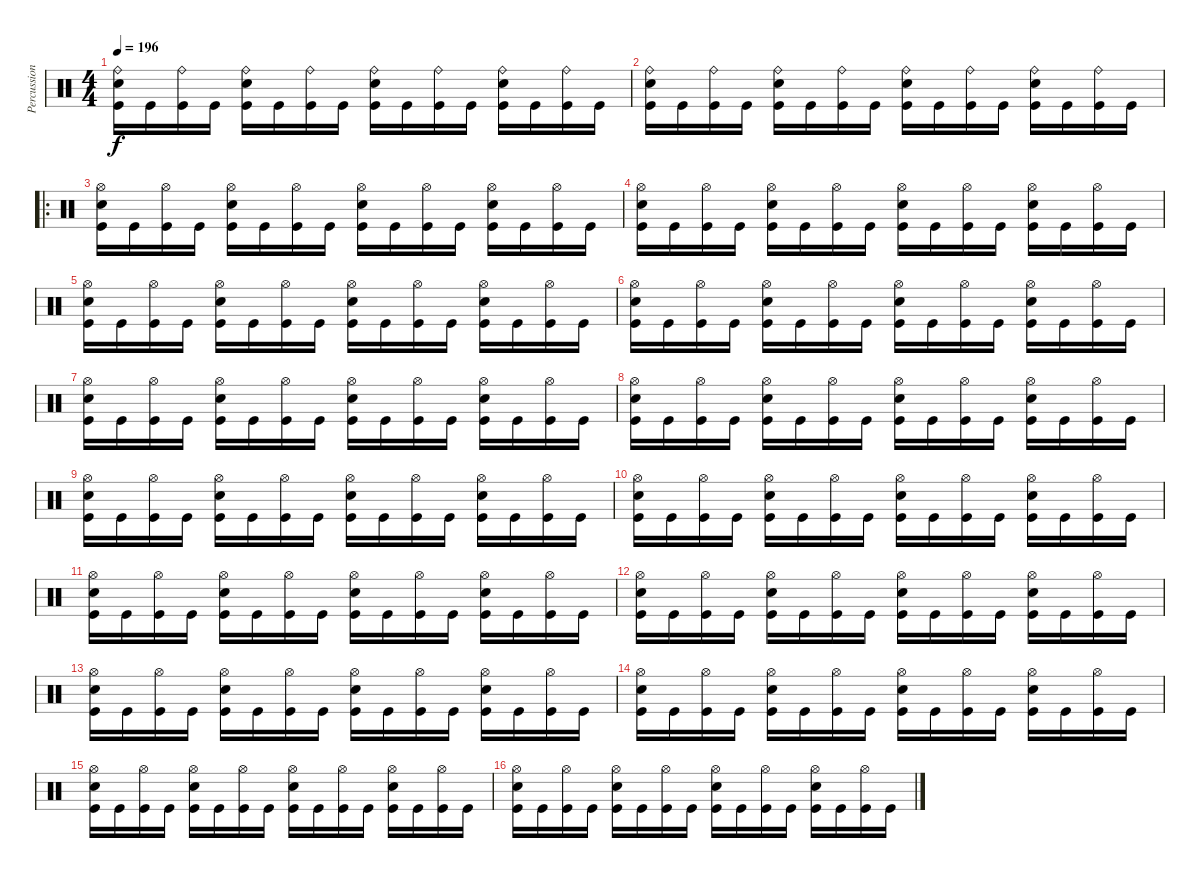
\track ("Percussions" "Percussion") {instrument percussion}
\staff {score}
\articulation defaults
\ts (4 4)
\tempo 196
\clef neutral
\ks c
("Kick (hit)" "Electric Snare (hit)" "Ride (bell)").16{dy f} "Kick (hit)".16 ("Kick (hit)" "Ride (bell)").16 "Kick (hit)".16 ("Kick (hit)" "Electric Snare (hit)" "Ride (bell)").16 "Kick (hit)".16 ("Kick (hit)" "Ride (bell)").16 "Kick (hit)".16 ("Kick (hit)" "Electric Snare (hit)" "Ride (bell)").16 "Kick (hit)".16 ("Kick (hit)" "Ride (bell)").16 "Kick (hit)".16 ("Kick (hit)" "Electric Snare (hit)" "Ride (bell)").16 "Kick (hit)".16 ("Kick (hit)" "Ride (bell)").16 "Kick (hit)".16 |
("Kick (hit)" "Electric Snare (hit)" "Ride (bell)").16 "Kick (hit)".16 ("Kick (hit)" "Ride (bell)").16 "Kick (hit)".16 ("Kick (hit)" "Electric Snare (hit)" "Ride (bell)").16 "Kick (hit)".16 ("Kick (hit)" "Ride (bell)").16 "Kick (hit)".16 ("Kick (hit)" "Electric Snare (hit)" "Ride (bell)").16 "Kick (hit)".16 ("Kick (hit)" "Ride (bell)").16 "Kick (hit)".16 ("Kick (hit)" "Electric Snare (hit)" "Ride (bell)").16 "Kick (hit)".16 ("Kick (hit)" "Ride (bell)").16 "Kick (hit)".16 |
\ro
("Kick (hit)" "Electric Snare (hit)" "Hi-Hat (open)").16 "Kick (hit)".16 ("Kick (hit)" "Hi-Hat (open)").16 "Kick (hit)".16 ("Kick (hit)" "Electric Snare (hit)" "Hi-Hat (open)").16 "Kick (hit)".16 ("Kick (hit)" "Hi-Hat (open)").16 "Kick (hit)".16 ("Kick (hit)" "Electric Snare (hit)" "Hi-Hat (open)").16 "Kick (hit)".16 ("Kick (hit)" "Hi-Hat (open)").16 "Kick (hit)".16 ("Kick (hit)" "Electric Snare (hit)" "Hi-Hat (open)").16 "Kick (hit)".16 ("Kick (hit)" "Hi-Hat (open)").16 "Kick (hit)".16 |
("Kick (hit)" "Electric Snare (hit)" "Hi-Hat (open)").16 "Kick (hit)".16 ("Kick (hit)" "Hi-Hat (open)").16 "Kick (hit)".16 ("Kick (hit)" "Electric Snare (hit)" "Hi-Hat (open)").16 "Kick (hit)".16 ("Kick (hit)" "Hi-Hat (open)").16 "Kick (hit)".16 ("Kick (hit)" "Electric Snare (hit)" "Hi-Hat (open)").16 "Kick (hit)".16 ("Kick (hit)" "Hi-Hat (open)").16 "Kick (hit)".16 ("Kick (hit)" "Electric Snare (hit)" "Hi-Hat (open)").16 "Kick (hit)".16 ("Kick (hit)" "Hi-Hat (open)").16 "Kick (hit)".16 |
("Kick (hit)" "Electric Snare (hit)" "Hi-Hat (open)").16 "Kick (hit)".16 ("Kick (hit)" "Hi-Hat (open)").16 "Kick (hit)".16 ("Kick (hit)" "Electric Snare (hit)" "Hi-Hat (open)").16 "Kick (hit)".16 ("Kick (hit)" "Hi-Hat (open)").16 "Kick (hit)".16 ("Kick (hit)" "Electric Snare (hit)" "Hi-Hat (open)").16 "Kick (hit)".16 ("Kick (hit)" "Hi-Hat (open)").16 "Kick (hit)".16 ("Kick (hit)" "Electric Snare (hit)" "Hi-Hat (open)").16 "Kick (hit)".16 ("Kick (hit)" "Hi-Hat (open)").16 "Kick (hit)".16 |
("Kick (hit)" "Electric Snare (hit)" "Hi-Hat (open)").16 "Kick (hit)".16 ("Kick (hit)" "Hi-Hat (open)").16 "Kick (hit)".16 ("Kick (hit)" "Electric Snare (hit)" "Hi-Hat (open)").16 "Kick (hit)".16 ("Kick (hit)" "Hi-Hat (open)").16 "Kick (hit)".16 ("Kick (hit)" "Electric Snare (hit)" "Hi-Hat (open)").16 "Kick (hit)".16 ("Kick (hit)" "Hi-Hat (open)").16 "Kick (hit)".16 ("Kick (hit)" "Electric Snare (hit)" "Hi-Hat (open)").16 "Kick (hit)".16 ("Kick (hit)" "Hi-Hat (open)").16 "Kick (hit)".16 |
("Kick (hit)" "Electric Snare (hit)" "Hi-Hat (open)").16 "Kick (hit)".16 ("Kick (hit)" "Hi-Hat (open)").16 "Kick (hit)".16 ("Kick (hit)" "Electric Snare (hit)" "Hi-Hat (open)").16 "Kick (hit)".16 ("Kick (hit)" "Hi-Hat (open)").16 "Kick (hit)".16 ("Kick (hit)" "Electric Snare (hit)" "Hi-Hat (open)").16 "Kick (hit)".16 ("Kick (hit)" "Hi-Hat (open)").16 "Kick (hit)".16 ("Kick (hit)" "Electric Snare (hit)" "Hi-Hat (open)").16 "Kick (hit)".16 ("Kick (hit)" "Hi-Hat (open)").16 "Kick (hit)".16 |
("Kick (hit)" "Electric Snare (hit)" "Hi-Hat (open)").16 "Kick (hit)".16 ("Kick (hit)" "Hi-Hat (open)").16 "Kick (hit)".16 ("Kick (hit)" "Electric Snare (hit)" "Hi-Hat (open)").16 "Kick (hit)".16 ("Kick (hit)" "Hi-Hat (open)").16 "Kick (hit)".16 ("Kick (hit)" "Electric Snare (hit)" "Hi-Hat (open)").16 "Kick (hit)".16 ("Kick (hit)" "Hi-Hat (open)").16 "Kick (hit)".16 ("Kick (hit)" "Electric Snare (hit)" "Hi-Hat (open)").16 "Kick (hit)".16 ("Kick (hit)" "Hi-Hat (open)").16 "Kick (hit)".16 |
("Kick (hit)" "Electric Snare (hit)" "Hi-Hat (open)").16 "Kick (hit)".16 ("Kick (hit)" "Hi-Hat (open)").16 "Kick (hit)".16 ("Kick (hit)" "Electric Snare (hit)" "Hi-Hat (open)").16 "Kick (hit)".16 ("Kick (hit)" "Hi-Hat (open)").16 "Kick (hit)".16 ("Kick (hit)" "Electric Snare (hit)" "Hi-Hat (open)").16 "Kick (hit)".16 ("Kick (hit)" "Hi-Hat (open)").16 "Kick (hit)".16 ("Kick (hit)" "Electric Snare (hit)" "Hi-Hat (open)").16 "Kick (hit)".16 ("Kick (hit)" "Hi-Hat (open)").16 "Kick (hit)".16 |
("Kick (hit)" "Electric Snare (hit)" "Hi-Hat (open)").16 "Kick (hit)".16 ("Kick (hit)" "Hi-Hat (open)").16 "Kick (hit)".16 ("Kick (hit)" "Electric Snare (hit)" "Hi-Hat (open)").16 "Kick (hit)".16 ("Kick (hit)" "Hi-Hat (open)").16 "Kick (hit)".16 ("Kick (hit)" "Electric Snare (hit)" "Hi-Hat (open)").16 "Kick (hit)".16 ("Kick (hit)" "Hi-Hat (open)").16 "Kick (hit)".16 ("Kick (hit)" "Electric Snare (hit)" "Hi-Hat (open)").16 "Kick (hit)".16 ("Kick (hit)" "Hi-Hat (open)").16 "Kick (hit)".16 |
("Kick (hit)" "Electric Snare (hit)" "Hi-Hat (open)").16 "Kick (hit)".16 ("Kick (hit)" "Hi-Hat (open)").16 "Kick (hit)".16 ("Kick (hit)" "Electric Snare (hit)" "Hi-Hat (open)").16 "Kick (hit)".16 ("Kick (hit)" "Hi-Hat (open)").16 "Kick (hit)".16 ("Kick (hit)" "Electric Snare (hit)" "Hi-Hat (open)").16 "Kick (hit)".16 ("Kick (hit)" "Hi-Hat (open)").16 "Kick (hit)".16 ("Kick (hit)" "Electric Snare (hit)" "Hi-Hat (open)").16 "Kick (hit)".16 ("Kick (hit)" "Hi-Hat (open)").16 "Kick (hit)".16 |
("Kick (hit)" "Electric Snare (hit)" "Hi-Hat (open)").16 "Kick (hit)".16 ("Kick (hit)" "Hi-Hat (open)").16 "Kick (hit)".16 ("Kick (hit)" "Electric Snare (hit)" "Hi-Hat (open)").16 "Kick (hit)".16 ("Kick (hit)" "Hi-Hat (open)").16 "Kick (hit)".16 ("Kick (hit)" "Electric Snare (hit)" "Hi-Hat (open)").16 "Kick (hit)".16 ("Kick (hit)" "Hi-Hat (open)").16 "Kick (hit)".16 ("Kick (hit)" "Electric Snare (hit)" "Hi-Hat (open)").16 "Kick (hit)".16 ("Kick (hit)" "Hi-Hat (open)").16 "Kick (hit)".16 |
("Kick (hit)" "Electric Snare (hit)" "Hi-Hat (open)").16 "Kick (hit)".16 ("Kick (hit)" "Hi-Hat (open)").16 "Kick (hit)".16 ("Kick (hit)" "Electric Snare (hit)" "Hi-Hat (open)").16 "Kick (hit)".16 ("Kick (hit)" "Hi-Hat (open)").16 "Kick (hit)".16 ("Kick (hit)" "Electric Snare (hit)" "Hi-Hat (open)").16 "Kick (hit)".16 ("Kick (hit)" "Hi-Hat (open)").16 "Kick (hit)".16 ("Kick (hit)" "Electric Snare (hit)" "Hi-Hat (open)").16 "Kick (hit)".16 ("Kick (hit)" "Hi-Hat (open)").16 "Kick (hit)".16 |
("Kick (hit)" "Electric Snare (hit)" "Hi-Hat (open)").16 "Kick (hit)".16 ("Kick (hit)" "Hi-Hat (open)").16 "Kick (hit)".16 ("Kick (hit)" "Electric Snare (hit)" "Hi-Hat (open)").16 "Kick (hit)".16 ("Kick (hit)" "Hi-Hat (open)").16 "Kick (hit)".16 ("Kick (hit)" "Electric Snare (hit)" "Hi-Hat (open)").16 "Kick (hit)".16 ("Kick (hit)" "Hi-Hat (open)").16 "Kick (hit)".16 ("Kick (hit)" "Electric Snare (hit)" "Hi-Hat (open)").16 "Kick (hit)".16 ("Kick (hit)" "Hi-Hat (open)").16 "Kick (hit)".16 |
("Kick (hit)" "Electric Snare (hit)" "Hi-Hat (open)").16 "Kick (hit)".16 ("Kick (hit)" "Hi-Hat (open)").16 "Kick (hit)".16 ("Kick (hit)" "Electric Snare (hit)" "Hi-Hat (open)").16 "Kick (hit)".16 ("Kick (hit)" "Hi-Hat (open)").16 "Kick (hit)".16 ("Kick (hit)" "Electric Snare (hit)" "Hi-Hat (open)").16 "Kick (hit)".16 ("Kick (hit)" "Hi-Hat (open)").16 "Kick (hit)".16 ("Kick (hit)" "Electric Snare (hit)" "Hi-Hat (open)").16 "Kick (hit)".16 ("Kick (hit)" "Hi-Hat (open)").16 "Kick (hit)".16 |
("Kick (hit)" "Electric Snare (hit)" "Hi-Hat (open)").16 "Kick (hit)".16 ("Kick (hit)" "Hi-Hat (open)").16 "Kick (hit)".16 ("Kick (hit)" "Electric Snare (hit)" "Hi-Hat (open)").16 "Kick (hit)".16 ("Kick (hit)" "Hi-Hat (open)").16 "Kick (hit)".16 ("Kick (hit)" "Electric Snare (hit)" "Hi-Hat (open)").16 "Kick (hit)".16 ("Kick (hit)" "Hi-Hat (open)").16 "Kick (hit)".16 ("Kick (hit)" "Electric Snare (hit)" "Hi-Hat (open)").16 "Kick (hit)".16 ("Kick (hit)" "Hi-Hat (open)").16 "Kick (hit)".16
